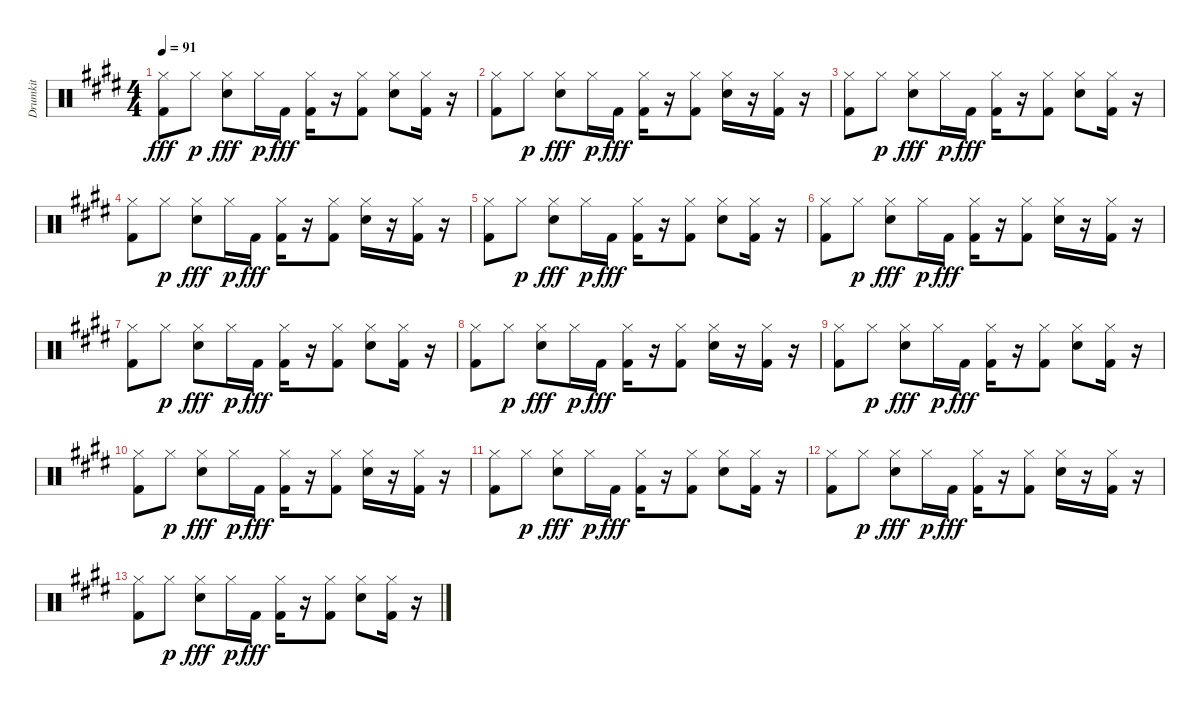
\track ("Drumkit" "Drumkit") {instrument percussion}
\staff {score}
\articulation defaults
\ts (4 4)
\tempo 91
\clef neutral
\ks e
("Kick (hit) 2" "Hi-Hat (closed)").8{dy fff} "Hi-Hat (closed)".8{dy p} ("Snare (hit) 2" "Hi-Hat (closed)").8{dy fff} "Hi-Hat (closed)".16{dy p} "Kick (hit) 2".16{dy fff} ("Kick (hit) 2" "Hi-Hat (closed)").16 r.16 ("Kick (hit) 2" "Hi-Hat (closed)").8 ("Snare (hit) 2" "Hi-Hat (closed)").8 ("Kick (hit) 2" "Hi-Hat (closed)").16 r.16 |
("Kick (hit) 2" "Hi-Hat (closed)").8 "Hi-Hat (closed)".8{dy p} ("Snare (hit) 2" "Hi-Hat (closed)").8{dy fff} "Hi-Hat (closed)".16{dy p} "Kick (hit) 2".16{dy fff} ("Kick (hit) 2" "Hi-Hat (closed)").16 r.16 ("Kick (hit) 2" "Hi-Hat (closed)").8 ("Snare (hit) 2" "Hi-Hat (closed)").16 r.16 ("Kick (hit) 2" "Hi-Hat (closed)").16 r.16 |
("Kick (hit) 2" "Hi-Hat (closed)").8 "Hi-Hat (closed)".8{dy p} ("Snare (hit) 2" "Hi-Hat (closed)").8{dy fff} "Hi-Hat (closed)".16{dy p} "Kick (hit) 2".16{dy fff} ("Kick (hit) 2" "Hi-Hat (closed)").16 r.16 ("Kick (hit) 2" "Hi-Hat (closed)").8 ("Snare (hit) 2" "Hi-Hat (closed)").8 ("Kick (hit) 2" "Hi-Hat (closed)").16 r.16 |
("Kick (hit) 2" "Hi-Hat (closed)").8 "Hi-Hat (closed)".8{dy p} ("Snare (hit) 2" "Hi-Hat (closed)").8{dy fff} "Hi-Hat (closed)".16{dy p} "Kick (hit) 2".16{dy fff} ("Kick (hit) 2" "Hi-Hat (closed)").16 r.16 ("Kick (hit) 2" "Hi-Hat (closed)").8 ("Snare (hit) 2" "Hi-Hat (closed)").16 r.16 ("Kick (hit) 2" "Hi-Hat (closed)").16 r.16 |
("Kick (hit) 2" "Hi-Hat (closed)").8 "Hi-Hat (closed)".8{dy p} ("Snare (hit) 2" "Hi-Hat (closed)").8{dy fff} "Hi-Hat (closed)".16{dy p} "Kick (hit) 2".16{dy fff} ("Kick (hit) 2" "Hi-Hat (closed)").16 r.16 ("Kick (hit) 2" "Hi-Hat (closed)").8 ("Snare (hit) 2" "Hi-Hat (closed)").8 ("Kick (hit) 2" "Hi-Hat (closed)").16 r.16 |
("Kick (hit) 2" "Hi-Hat (closed)").8 "Hi-Hat (closed)".8{dy p} ("Snare (hit) 2" "Hi-Hat (closed)").8{dy fff} "Hi-Hat (closed)".16{dy p} "Kick (hit) 2".16{dy fff} ("Kick (hit) 2" "Hi-Hat (closed)").16 r.16 ("Kick (hit) 2" "Hi-Hat (closed)").8 ("Snare (hit) 2" "Hi-Hat (closed)").16 r.16 ("Kick (hit) 2" "Hi-Hat (closed)").16 r.16 |
("Kick (hit) 2" "Hi-Hat (closed)").8 "Hi-Hat (closed)".8{dy p} ("Snare (hit) 2" "Hi-Hat (closed)").8{dy fff} "Hi-Hat (closed)".16{dy p} "Kick (hit) 2".16{dy fff} ("Kick (hit) 2" "Hi-Hat (closed)").16 r.16 ("Kick (hit) 2" "Hi-Hat (closed)").8 ("Snare (hit) 2" "Hi-Hat (closed)").8 ("Kick (hit) 2" "Hi-Hat (closed)").16 r.16 |
("Kick (hit) 2" "Hi-Hat (closed)").8 "Hi-Hat (closed)".8{dy p} ("Snare (hit) 2" "Hi-Hat (closed)").8{dy fff} "Hi-Hat (closed)".16{dy p} "Kick (hit) 2".16{dy fff} ("Kick (hit) 2" "Hi-Hat (closed)").16 r.16 ("Kick (hit) 2" "Hi-Hat (closed)").8 ("Snare (hit) 2" "Hi-Hat (closed)").16 r.16 ("Kick (hit) 2" "Hi-Hat (closed)").16 r.16 |
("Kick (hit) 2" "Hi-Hat (closed)").8 "Hi-Hat (closed)".8{dy p} ("Snare (hit) 2" "Hi-Hat (closed)").8{dy fff} "Hi-Hat (closed)".16{dy p} "Kick (hit) 2".16{dy fff} ("Kick (hit) 2" "Hi-Hat (closed)").16 r.16 ("Kick (hit) 2" "Hi-Hat (closed)").8 ("Snare (hit) 2" "Hi-Hat (closed)").8 ("Kick (hit) 2" "Hi-Hat (closed)").16 r.16 |
("Kick (hit) 2" "Hi-Hat (closed)").8 "Hi-Hat (closed)".8{dy p} ("Snare (hit) 2" "Hi-Hat (closed)").8{dy fff} "Hi-Hat (closed)".16{dy p} "Kick (hit) 2".16{dy fff} ("Kick (hit) 2" "Hi-Hat (closed)").16 r.16 ("Kick (hit) 2" "Hi-Hat (closed)").8 ("Snare (hit) 2" "Hi-Hat (closed)").16 r.16 ("Kick (hit) 2" "Hi-Hat (closed)").16 r.16 |
("Kick (hit) 2" "Hi-Hat (closed)").8 "Hi-Hat (closed)".8{dy p} ("Snare (hit) 2" "Hi-Hat (closed)").8{dy fff} "Hi-Hat (closed)".16{dy p} "Kick (hit) 2".16{dy fff} ("Kick (hit) 2" "Hi-Hat (closed)").16 r.16 ("Kick (hit) 2" "Hi-Hat (closed)").8 ("Snare (hit) 2" "Hi-Hat (closed)").8 ("Kick (hit) 2" "Hi-Hat (closed)").16 r.16 |
("Kick (hit) 2" "Hi-Hat (closed)").8 "Hi-Hat (closed)".8{dy p} ("Snare (hit) 2" "Hi-Hat (closed)").8{dy fff} "Hi-Hat (closed)".16{dy p} "Kick (hit) 2".16{dy fff} ("Kick (hit) 2" "Hi-Hat (closed)").16 r.16 ("Kick (hit) 2" "Hi-Hat (closed)").8 ("Snare (hit) 2" "Hi-Hat (closed)").16 r.16 ("Kick (hit) 2" "Hi-Hat (closed)").16 r.16 |
("Kick (hit) 2" "Hi-Hat (closed)").8 "Hi-Hat (closed)".8{dy p} ("Snare (hit) 2" "Hi-Hat (closed)").8{dy fff} "Hi-Hat (closed)".16{dy p} "Kick (hit) 2".16{dy fff} ("Kick (hit) 2" "Hi-Hat (closed)").16 r.16 ("Kick (hit) 2" "Hi-Hat (closed)").8 ("Snare (hit) 2" "Hi-Hat (closed)").8 ("Kick (hit) 2" "Hi-Hat (closed)").16 r.16
